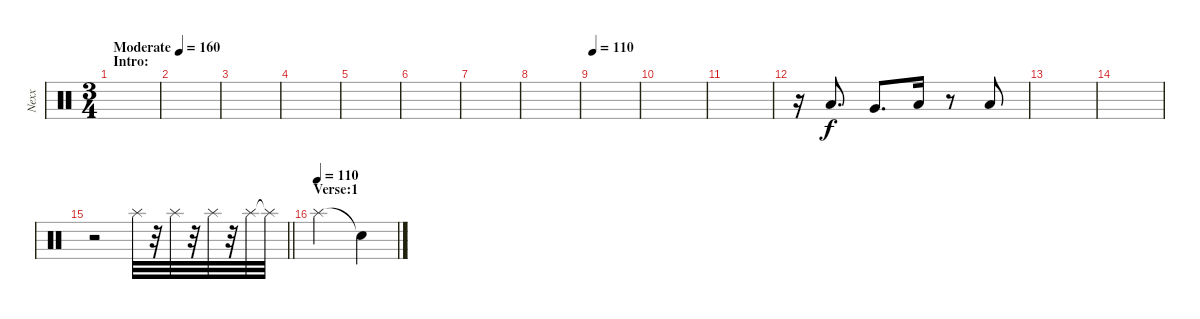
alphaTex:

\track ("Nexx" "Nexx") {instrument percussion}
\staff {score}
\articulation defaults
\ts (3 4)
\section ("" "Intro:")
\tempo (160 "Moderate")
\tempo 110
\tempo (160 "Moderate")
\clef neutral
\ks c
|
|
|
|
|
|
|
|
\tempo 110
|
|
|
r.16 "Low Tom (hit)".8{d} "Very Low Tom (hit)".8{d} "Low Floor Tom (hit)".16{volume 9} r.8 "Low Floor Tom (hit)".8 |
|
|
\barLineRight lightlight
r.2 "Splash (hit)".32{dy f volume 5} r.32 "Splash (hit)".32 r.32 "Splash (hit)".32 r.32 "Splash (hit)".32 "Splash (hit)"{t}.32 |
\section ("" "Verse:1")
\tempo (110)
"Splash (hit)".2 "Snare (hit)"{t}.4
